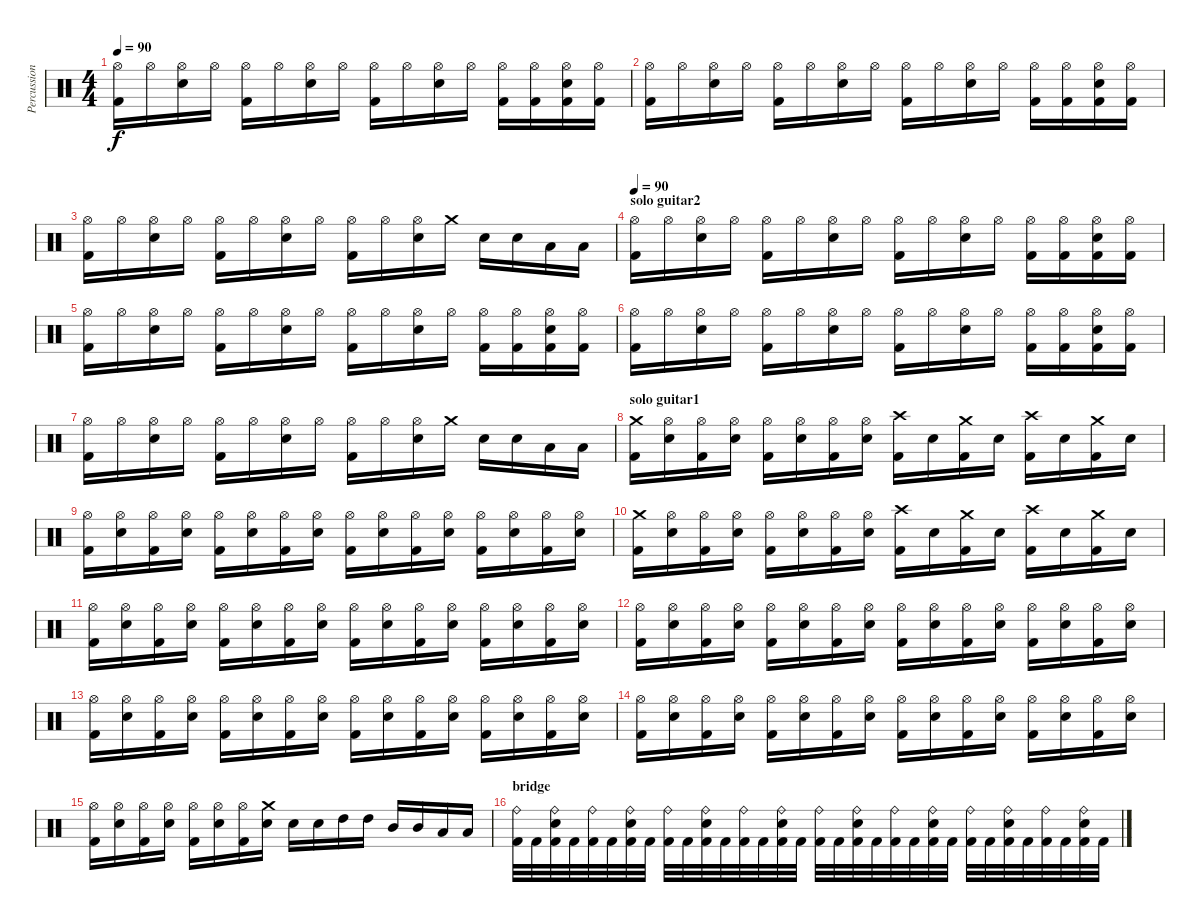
\track ("Percussions" "Percussion") {instrument percussion}
\staff {score}
\articulation defaults
\ts (4 4)
\tempo 90
\clef neutral
\ks c
("Hi-Hat (open)" "Kick (hit) 2").16{dy f} "Hi-Hat (open)".16 ("Hi-Hat (open)" "Electric Snare (hit)").16 "Hi-Hat (open)".16 ("Hi-Hat (open)" "Kick (hit) 2").16 "Hi-Hat (open)".16 ("Hi-Hat (open)" "Electric Snare (hit)").16 "Hi-Hat (open)".16 ("Hi-Hat (open)" "Kick (hit) 2").16 "Hi-Hat (open)".16 ("Hi-Hat (open)" "Electric Snare (hit)").16 "Hi-Hat (open)".16 ("Hi-Hat (open)" "Kick (hit) 2").16 ("Hi-Hat (open)" "Kick (hit) 2").16 ("Hi-Hat (open)" "Electric Snare (hit)" "Kick (hit) 2").16 ("Hi-Hat (open)" "Kick (hit) 2").16 |
("Hi-Hat (open)" "Kick (hit) 2").16 "Hi-Hat (open)".16 ("Hi-Hat (open)" "Electric Snare (hit)").16 "Hi-Hat (open)".16 ("Hi-Hat (open)" "Kick (hit) 2").16 "Hi-Hat (open)".16 ("Hi-Hat (open)" "Electric Snare (hit)").16 "Hi-Hat (open)".16 ("Hi-Hat (open)" "Kick (hit) 2").16 "Hi-Hat (open)".16 ("Hi-Hat (open)" "Electric Snare (hit)").16 "Hi-Hat (open)".16 ("Hi-Hat (open)" "Kick (hit) 2").16 ("Hi-Hat (open)" "Kick (hit) 2").16 ("Hi-Hat (open)" "Electric Snare (hit)" "Kick (hit) 2").16 ("Hi-Hat (open)" "Kick (hit) 2").16 |
("Hi-Hat (open)" "Kick (hit) 2").16 "Hi-Hat (open)".16 ("Hi-Hat (open)" "Electric Snare (hit)").16 "Hi-Hat (open)".16 ("Hi-Hat (open)" "Kick (hit) 2").16 "Hi-Hat (open)".16 ("Hi-Hat (open)" "Electric Snare (hit)").16 "Hi-Hat (open)".16 ("Hi-Hat (open)" "Kick (hit) 2").16 "Hi-Hat (open)".16 ("Hi-Hat (open)" "Electric Snare (hit)").16 "Crash medium (hit)".16 "Electric Snare (hit)".16 "Electric Snare (hit)".16 "Low Tom (hit)".16 "Low Tom (hit)".16 |
\section ("" "solo guitar2")
\tempo 90
("Hi-Hat (open)" "Kick (hit) 2").16 "Hi-Hat (open)".16 ("Hi-Hat (open)" "Electric Snare (hit)").16 "Hi-Hat (open)".16 ("Hi-Hat (open)" "Kick (hit) 2").16 "Hi-Hat (open)".16 ("Hi-Hat (open)" "Electric Snare (hit)").16 "Hi-Hat (open)".16 ("Hi-Hat (open)" "Kick (hit) 2").16 "Hi-Hat (open)".16 ("Hi-Hat (open)" "Electric Snare (hit)").16 "Hi-Hat (open)".16 ("Hi-Hat (open)" "Kick (hit) 2").16 ("Hi-Hat (open)" "Kick (hit) 2").16 ("Hi-Hat (open)" "Electric Snare (hit)" "Kick (hit) 2").16 ("Hi-Hat (open)" "Kick (hit) 2").16 |
("Hi-Hat (open)" "Kick (hit) 2").16 "Hi-Hat (open)".16 ("Hi-Hat (open)" "Electric Snare (hit)").16 "Hi-Hat (open)".16 ("Hi-Hat (open)" "Kick (hit) 2").16 "Hi-Hat (open)".16 ("Hi-Hat (open)" "Electric Snare (hit)").16 "Hi-Hat (open)".16 ("Hi-Hat (open)" "Kick (hit) 2").16 "Hi-Hat (open)".16 ("Hi-Hat (open)" "Electric Snare (hit)").16 "Hi-Hat (open)".16 ("Hi-Hat (open)" "Kick (hit) 2").16 ("Hi-Hat (open)" "Kick (hit) 2").16 ("Hi-Hat (open)" "Electric Snare (hit)" "Kick (hit) 2").16 ("Hi-Hat (open)" "Kick (hit) 2").16 |
("Hi-Hat (open)" "Kick (hit) 2").16 "Hi-Hat (open)".16 ("Hi-Hat (open)" "Electric Snare (hit)").16 "Hi-Hat (open)".16 ("Hi-Hat (open)" "Kick (hit) 2").16 "Hi-Hat (open)".16 ("Hi-Hat (open)" "Electric Snare (hit)").16 "Hi-Hat (open)".16 ("Hi-Hat (open)" "Kick (hit) 2").16 "Hi-Hat (open)".16 ("Hi-Hat (open)" "Electric Snare (hit)").16 "Hi-Hat (open)".16 ("Hi-Hat (open)" "Kick (hit) 2").16 ("Hi-Hat (open)" "Kick (hit) 2").16 ("Hi-Hat (open)" "Electric Snare (hit)" "Kick (hit) 2").16 ("Hi-Hat (open)" "Kick (hit) 2").16 |
("Hi-Hat (open)" "Kick (hit) 2").16 "Hi-Hat (open)".16 ("Hi-Hat (open)" "Electric Snare (hit)").16 "Hi-Hat (open)".16 ("Hi-Hat (open)" "Kick (hit) 2").16 "Hi-Hat (open)".16 ("Hi-Hat (open)" "Electric Snare (hit)").16 "Hi-Hat (open)".16 ("Hi-Hat (open)" "Kick (hit) 2").16 "Hi-Hat (open)".16 ("Hi-Hat (open)" "Electric Snare (hit)").16 "Crash medium (hit)".16 "Electric Snare (hit)".16 "Electric Snare (hit)".16 "Low Tom (hit)".16 "Low Tom (hit)".16 |
\section ("" "solo guitar1")
("Crash medium (hit)" "Kick (hit) 2").16 ("Hi-Hat (open)" "Electric Snare (hit)").16 ("Hi-Hat (open)" "Kick (hit) 2").16 ("Hi-Hat (open)" "Electric Snare (hit)").16 ("Hi-Hat (open)" "Kick (hit) 2").16 ("Hi-Hat (open)" "Electric Snare (hit)").16 ("Hi-Hat (open)" "Kick (hit) 2").16 ("Hi-Hat (open)" "Electric Snare (hit)").16 ("Crash high (hit)" "Kick (hit) 2").16 "Electric Snare (hit)".16 ("Crash medium (hit)" "Kick (hit) 2").16 "Electric Snare (hit)".16 ("Crash high (hit)" "Kick (hit) 2").16 "Electric Snare (hit)".16 ("Crash medium (hit)" "Kick (hit) 2").16 "Electric Snare (hit)".16 |
("Hi-Hat (open)" "Kick (hit) 2").16 ("Hi-Hat (open)" "Electric Snare (hit)").16 ("Hi-Hat (open)" "Kick (hit) 2").16 ("Hi-Hat (open)" "Electric Snare (hit)").16 ("Hi-Hat (open)" "Kick (hit) 2").16 ("Hi-Hat (open)" "Electric Snare (hit)").16 ("Hi-Hat (open)" "Kick (hit) 2").16 ("Hi-Hat (open)" "Electric Snare (hit)").16 ("Hi-Hat (open)" "Kick (hit) 2").16 ("Hi-Hat (open)" "Electric Snare (hit)").16 ("Hi-Hat (open)" "Kick (hit) 2").16 ("Hi-Hat (open)" "Electric Snare (hit)").16 ("Hi-Hat (open)" "Kick (hit) 2").16 ("Hi-Hat (open)" "Electric Snare (hit)").16 ("Hi-Hat (open)" "Kick (hit) 2").16 ("Hi-Hat (open)" "Electric Snare (hit)").16 |
("Crash medium (hit)" "Kick (hit) 2").16 ("Hi-Hat (open)" "Electric Snare (hit)").16 ("Hi-Hat (open)" "Kick (hit) 2").16 ("Hi-Hat (open)" "Electric Snare (hit)").16 ("Hi-Hat (open)" "Kick (hit) 2").16 ("Hi-Hat (open)" "Electric Snare (hit)").16 ("Hi-Hat (open)" "Kick (hit) 2").16 ("Hi-Hat (open)" "Electric Snare (hit)").16 ("Crash high (hit)" "Kick (hit) 2").16 "Electric Snare (hit)".16 ("Crash medium (hit)" "Kick (hit) 2").16 "Electric Snare (hit)".16 ("Crash high (hit)" "Kick (hit) 2").16 "Electric Snare (hit)".16 ("Crash medium (hit)" "Kick (hit) 2").16 "Electric Snare (hit)".16 |
("Hi-Hat (open)" "Kick (hit) 2").16 ("Hi-Hat (open)" "Electric Snare (hit)").16 ("Hi-Hat (open)" "Kick (hit) 2").16 ("Hi-Hat (open)" "Electric Snare (hit)").16 ("Hi-Hat (open)" "Kick (hit) 2").16 ("Hi-Hat (open)" "Electric Snare (hit)").16 ("Hi-Hat (open)" "Kick (hit) 2").16 ("Hi-Hat (open)" "Electric Snare (hit)").16 ("Hi-Hat (open)" "Kick (hit) 2").16 ("Hi-Hat (open)" "Electric Snare (hit)").16 ("Hi-Hat (open)" "Kick (hit) 2").16 ("Hi-Hat (open)" "Electric Snare (hit)").16 ("Hi-Hat (open)" "Kick (hit) 2").16 ("Hi-Hat (open)" "Electric Snare (hit)").16 ("Hi-Hat (open)" "Kick (hit) 2").16 ("Hi-Hat (open)" "Electric Snare (hit)").16 |
("Hi-Hat (open)" "Kick (hit) 2").16 ("Hi-Hat (open)" "Electric Snare (hit)").16 ("Hi-Hat (open)" "Kick (hit) 2").16 ("Hi-Hat (open)" "Electric Snare (hit)").16 ("Hi-Hat (open)" "Kick (hit) 2").16 ("Hi-Hat (open)" "Electric Snare (hit)").16 ("Hi-Hat (open)" "Kick (hit) 2").16 ("Hi-Hat (open)" "Electric Snare (hit)").16 ("Hi-Hat (open)" "Kick (hit) 2").16 ("Hi-Hat (open)" "Electric Snare (hit)").16 ("Hi-Hat (open)" "Kick (hit) 2").16 ("Hi-Hat (open)" "Electric Snare (hit)").16 ("Hi-Hat (open)" "Kick (hit) 2").16 ("Hi-Hat (open)" "Electric Snare (hit)").16 ("Hi-Hat (open)" "Kick (hit) 2").16 ("Hi-Hat (open)" "Electric Snare (hit)").16 |
("Hi-Hat (open)" "Kick (hit) 2").16 ("Hi-Hat (open)" "Electric Snare (hit)").16 ("Hi-Hat (open)" "Kick (hit) 2").16 ("Hi-Hat (open)" "Electric Snare (hit)").16 ("Hi-Hat (open)" "Kick (hit) 2").16 ("Hi-Hat (open)" "Electric Snare (hit)").16 ("Hi-Hat (open)" "Kick (hit) 2").16 ("Hi-Hat (open)" "Electric Snare (hit)").16 ("Hi-Hat (open)" "Kick (hit) 2").16 ("Hi-Hat (open)" "Electric Snare (hit)").16 ("Hi-Hat (open)" "Kick (hit) 2").16 ("Hi-Hat (open)" "Electric Snare (hit)").16 ("Hi-Hat (open)" "Kick (hit) 2").16 ("Hi-Hat (open)" "Electric Snare (hit)").16 ("Hi-Hat (open)" "Kick (hit) 2").16 ("Hi-Hat (open)" "Electric Snare (hit)").16 |
("Hi-Hat (open)" "Kick (hit) 2").16 ("Hi-Hat (open)" "Electric Snare (hit)").16 ("Hi-Hat (open)" "Kick (hit) 2").16 ("Hi-Hat (open)" "Electric Snare (hit)").16 ("Hi-Hat (open)" "Kick (hit) 2").16 ("Hi-Hat (open)" "Electric Snare (hit)").16 ("Hi-Hat (open)" "Kick (hit) 2").16 ("Hi-Hat (open)" "Electric Snare (hit)").16 ("Hi-Hat (open)" "Kick (hit) 2").16 ("Hi-Hat (open)" "Electric Snare (hit)").16 ("Hi-Hat (open)" "Kick (hit) 2").16 ("Hi-Hat (open)" "Electric Snare (hit)").16 ("Hi-Hat (open)" "Kick (hit) 2").16 ("Hi-Hat (open)" "Electric Snare (hit)").16 ("Hi-Hat (open)" "Kick (hit) 2").16 ("Hi-Hat (open)" "Electric Snare (hit)").16 |
("Hi-Hat (open)" "Kick (hit) 2").16 ("Hi-Hat (open)" "Electric Snare (hit)").16 ("Hi-Hat (open)" "Kick (hit) 2").16 ("Hi-Hat (open)" "Electric Snare (hit)").16 ("Hi-Hat (open)" "Kick (hit) 2").16 ("Hi-Hat (open)" "Electric Snare (hit)").16 ("Hi-Hat (open)" "Kick (hit) 2").16 ("Crash medium (hit)" "Electric Snare (hit)").16 "Electric Snare (hit)".16 "Electric Snare (hit)".16 "High Tom (hit)".16 "High Tom (hit)".16 "Mid Tom (hit)".16 "Mid Tom (hit)".16 "Low Tom (hit)".16 "Low Tom (hit)".16 |
\section ("" "bridge")
("Ride (bell)" "Kick (hit) 2").32 "Kick (hit) 2".32 ("Ride (bell)" "Electric Snare (hit)" "Kick (hit) 2").32 "Kick (hit) 2".32 ("Ride (bell)" "Kick (hit) 2").32 "Kick (hit) 2".32 ("Ride (bell)" "Electric Snare (hit)" "Kick (hit) 2").32 "Kick (hit) 2".32 ("Ride (bell)" "Kick (hit) 2").32 "Kick (hit) 2".32 ("Ride (bell)" "Electric Snare (hit)" "Kick (hit) 2").32 "Kick (hit) 2".32 ("Ride (bell)" "Kick (hit) 2").32 "Kick (hit) 2".32 ("Ride (bell)" "Electric Snare (hit)" "Kick (hit) 2").32 "Kick (hit) 2".32 ("Ride (bell)" "Kick (hit) 2").32 "Kick (hit) 2".32 ("Ride (bell)" "Electric Snare (hit)" "Kick (hit) 2").32 "Kick (hit) 2".32 ("Ride (bell)" "Kick (hit) 2").32 "Kick (hit) 2".32 ("Ride (bell)" "Electric Snare (hit)" "Kick (hit) 2").32 "Kick (hit) 2".32 ("Ride (bell)" "Kick (hit) 2").32 "Kick (hit) 2".32 ("Ride (bell)" "Electric Snare (hit)" "Kick (hit) 2").32 "Kick (hit) 2".32 ("Ride (bell)" "Kick (hit) 2").32 "Kick (hit) 2".32 ("Ride (bell)" "Electric Snare (hit)" "Kick (hit) 2").32 "Kick (hit) 2".32
